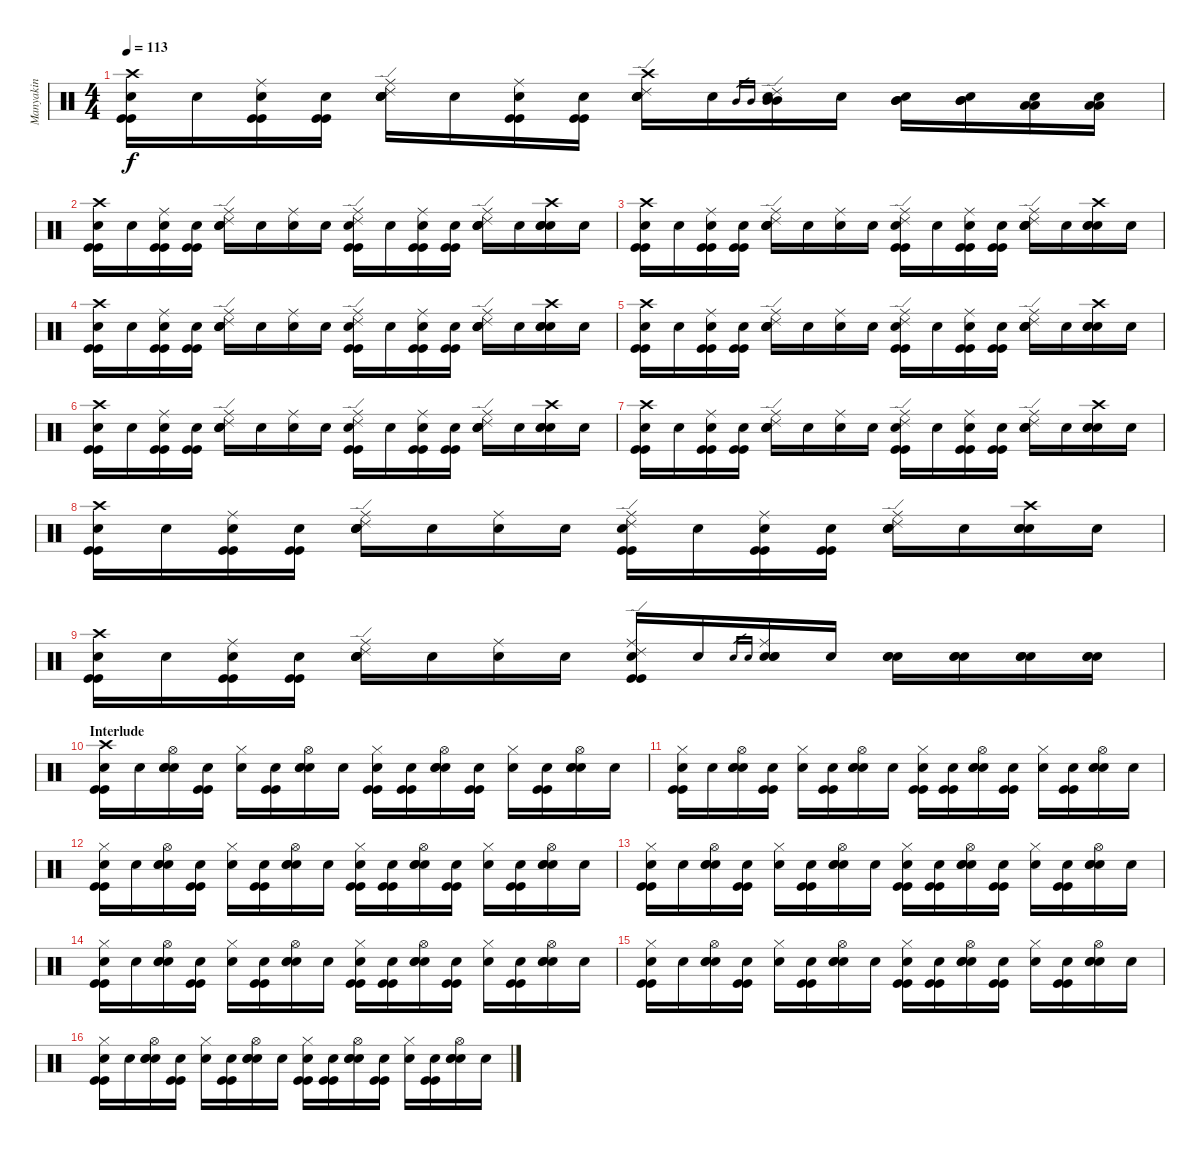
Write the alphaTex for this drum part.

\track ("Manyakin" "Manyakin") {instrument percussion}
\staff {score}
\articulation defaults
\ts (4 4)
\tempo 113
\clef neutral
\ks c
("Crash high (hit)" "Kick (hit)" "Kick (hit)" "Snare (hit)"{x}).16{dy f} "Snare (hit)"{x}.16 ("Ride (middle)" "Kick (hit)" "Kick (hit)" "Snare (hit)"{x}).16 ("Kick (hit)" "Kick (hit)" "Snare (hit)"{x}).16 ("Ride (middle)" "Ride (edge) 2" "Electric Snare (hit)" "Electric Snare (hit)" "Snare (hit)"{x}).16 "Snare (hit)"{x}.16 ("Ride (middle)" "Kick (hit)" "Kick (hit)" "Snare (hit)"{x}).16 ("Kick (hit)" "Kick (hit)" "Snare (hit)"{x}).16 ("Crash high (hit)" "Ride (edge) 2" "Electric Snare (hit)" "Electric Snare (hit)" "Snare (hit)"{x}).16 "Snare (hit)"{x}.16 "Mid Tom (hit)".16{gr} "Mid Tom (hit)".16{gr} ("Ride (edge) 2" "Mid Tom (hit)" "Mid Tom (hit)" "Snare (hit)"{x}).16 "Snare (hit)"{x}.16 ("Mid Tom (hit)" "Mid Tom (hit)" "Snare (hit)"{x}).16 ("Mid Tom (hit)" "Mid Tom (hit)" "Snare (hit)"{x}).16 ("Low Tom (hit)" "Low Tom (hit)" "Snare (hit)"{x}).16 ("Low Tom (hit)" "Low Tom (hit)" "Snare (hit)"{x}).16 |
("Crash high (hit)" "Kick (hit)" "Kick (hit)" "Snare (hit)"{x}).16 "Snare (hit)"{x}.16 ("Ride (middle)" "Kick (hit)" "Kick (hit)" "Snare (hit)"{x}).16 ("Kick (hit)" "Kick (hit)" "Snare (hit)"{x}).16 ("Ride (middle)" "Ride (edge) 2" "Electric Snare (hit)" "Electric Snare (hit)" "Snare (hit)"{x}).16 "Snare (hit)"{x}.16 ("Ride (middle)" "Snare (hit)"{x}).16 "Snare (hit)"{x}.16 ("Ride (middle)" "Ride (edge) 2" "Kick (hit)" "Kick (hit)" "Snare (hit)"{x}).16 "Snare (hit)"{x}.16 ("Ride (middle)" "Kick (hit)" "Kick (hit)" "Snare (hit)"{x}).16 ("Kick (hit)" "Kick (hit)" "Snare (hit)"{x}).16 ("Ride (middle)" "Ride (edge) 2" "Electric Snare (hit)" "Electric Snare (hit)" "Snare (hit)"{x}).16 "Snare (hit)"{x}.16 ("Crash high (hit)" "Electric Snare (hit)" "Electric Snare (hit)" "Snare (hit)"{x}).16 "Snare (hit)"{x}.16 |
("Crash high (hit)" "Kick (hit)" "Kick (hit)" "Snare (hit)"{x}).16 "Snare (hit)"{x}.16 ("Ride (middle)" "Kick (hit)" "Kick (hit)" "Snare (hit)"{x}).16 ("Kick (hit)" "Kick (hit)" "Snare (hit)"{x}).16 ("Ride (middle)" "Ride (edge) 2" "Electric Snare (hit)" "Electric Snare (hit)" "Snare (hit)"{x}).16 "Snare (hit)"{x}.16 ("Ride (middle)" "Snare (hit)"{x}).16 "Snare (hit)"{x}.16 ("Ride (middle)" "Ride (edge) 2" "Kick (hit)" "Kick (hit)" "Snare (hit)"{x}).16 "Snare (hit)"{x}.16 ("Ride (middle)" "Kick (hit)" "Kick (hit)" "Snare (hit)"{x}).16 ("Kick (hit)" "Kick (hit)" "Snare (hit)"{x}).16 ("Ride (middle)" "Ride (edge) 2" "Electric Snare (hit)" "Electric Snare (hit)" "Snare (hit)"{x}).16 "Snare (hit)"{x}.16 ("Crash high (hit)" "Electric Snare (hit)" "Electric Snare (hit)" "Snare (hit)"{x}).16 "Snare (hit)"{x}.16 |
("Crash high (hit)" "Kick (hit)" "Kick (hit)" "Snare (hit)"{x}).16 "Snare (hit)"{x}.16 ("Ride (middle)" "Kick (hit)" "Kick (hit)" "Snare (hit)"{x}).16 ("Kick (hit)" "Kick (hit)" "Snare (hit)"{x}).16 ("Ride (middle)" "Ride (edge) 2" "Electric Snare (hit)" "Electric Snare (hit)" "Snare (hit)"{x}).16 "Snare (hit)"{x}.16 ("Ride (middle)" "Snare (hit)"{x}).16 "Snare (hit)"{x}.16 ("Ride (middle)" "Ride (edge) 2" "Kick (hit)" "Kick (hit)" "Snare (hit)"{x}).16 "Snare (hit)"{x}.16 ("Ride (middle)" "Kick (hit)" "Kick (hit)" "Snare (hit)"{x}).16 ("Kick (hit)" "Kick (hit)" "Snare (hit)"{x}).16 ("Ride (middle)" "Ride (edge) 2" "Electric Snare (hit)" "Electric Snare (hit)" "Snare (hit)"{x}).16 "Snare (hit)"{x}.16 ("Crash high (hit)" "Electric Snare (hit)" "Electric Snare (hit)" "Snare (hit)"{x}).16 "Snare (hit)"{x}.16 |
("Crash high (hit)" "Kick (hit)" "Kick (hit)" "Snare (hit)"{x}).16 "Snare (hit)"{x}.16 ("Ride (middle)" "Kick (hit)" "Kick (hit)" "Snare (hit)"{x}).16 ("Kick (hit)" "Kick (hit)" "Snare (hit)"{x}).16 ("Ride (middle)" "Ride (edge) 2" "Electric Snare (hit)" "Electric Snare (hit)" "Snare (hit)"{x}).16 "Snare (hit)"{x}.16 ("Ride (middle)" "Snare (hit)"{x}).16 "Snare (hit)"{x}.16 ("Ride (middle)" "Ride (edge) 2" "Kick (hit)" "Kick (hit)" "Snare (hit)"{x}).16 "Snare (hit)"{x}.16 ("Ride (middle)" "Kick (hit)" "Kick (hit)" "Snare (hit)"{x}).16 ("Kick (hit)" "Kick (hit)" "Snare (hit)"{x}).16 ("Ride (middle)" "Ride (edge) 2" "Electric Snare (hit)" "Electric Snare (hit)" "Snare (hit)"{x}).16 "Snare (hit)"{x}.16 ("Crash high (hit)" "Electric Snare (hit)" "Electric Snare (hit)" "Snare (hit)"{x}).16 "Snare (hit)"{x}.16 |
("Crash high (hit)" "Kick (hit)" "Kick (hit)" "Snare (hit)"{x}).16 "Snare (hit)"{x}.16 ("Ride (middle)" "Kick (hit)" "Kick (hit)" "Snare (hit)"{x}).16 ("Kick (hit)" "Kick (hit)" "Snare (hit)"{x}).16 ("Ride (middle)" "Ride (edge) 2" "Electric Snare (hit)" "Electric Snare (hit)" "Snare (hit)"{x}).16 "Snare (hit)"{x}.16 ("Ride (middle)" "Snare (hit)"{x}).16 "Snare (hit)"{x}.16 ("Ride (middle)" "Ride (edge) 2" "Kick (hit)" "Kick (hit)" "Snare (hit)"{x}).16 "Snare (hit)"{x}.16 ("Ride (middle)" "Kick (hit)" "Kick (hit)" "Snare (hit)"{x}).16 ("Kick (hit)" "Kick (hit)" "Snare (hit)"{x}).16 ("Ride (middle)" "Ride (edge) 2" "Electric Snare (hit)" "Electric Snare (hit)" "Snare (hit)"{x}).16 "Snare (hit)"{x}.16 ("Crash high (hit)" "Electric Snare (hit)" "Electric Snare (hit)" "Snare (hit)"{x}).16 "Snare (hit)"{x}.16 |
("Crash high (hit)" "Kick (hit)" "Kick (hit)" "Snare (hit)"{x}).16 "Snare (hit)"{x}.16 ("Ride (middle)" "Kick (hit)" "Kick (hit)" "Snare (hit)"{x}).16 ("Kick (hit)" "Kick (hit)" "Snare (hit)"{x}).16 ("Ride (middle)" "Ride (edge) 2" "Electric Snare (hit)" "Electric Snare (hit)" "Snare (hit)"{x}).16 "Snare (hit)"{x}.16 ("Ride (middle)" "Snare (hit)"{x}).16 "Snare (hit)"{x}.16 ("Ride (middle)" "Ride (edge) 2" "Kick (hit)" "Kick (hit)" "Snare (hit)"{x}).16 "Snare (hit)"{x}.16 ("Ride (middle)" "Kick (hit)" "Kick (hit)" "Snare (hit)"{x}).16 ("Kick (hit)" "Kick (hit)" "Snare (hit)"{x}).16 ("Ride (middle)" "Ride (edge) 2" "Electric Snare (hit)" "Electric Snare (hit)" "Snare (hit)"{x}).16 "Snare (hit)"{x}.16 ("Crash high (hit)" "Electric Snare (hit)" "Electric Snare (hit)" "Snare (hit)"{x}).16 "Snare (hit)"{x}.16 |
("Crash high (hit)" "Kick (hit)" "Kick (hit)" "Snare (hit)"{x}).16 "Snare (hit)"{x}.16 ("Ride (middle)" "Kick (hit)" "Kick (hit)" "Snare (hit)"{x}).16 ("Kick (hit)" "Kick (hit)" "Snare (hit)"{x}).16 ("Ride (middle)" "Ride (edge) 2" "Electric Snare (hit)" "Electric Snare (hit)" "Snare (hit)"{x}).16 "Snare (hit)"{x}.16 ("Ride (middle)" "Snare (hit)"{x}).16 "Snare (hit)"{x}.16 ("Ride (middle)" "Ride (edge) 2" "Kick (hit)" "Kick (hit)" "Snare (hit)"{x}).16 "Snare (hit)"{x}.16 ("Ride (middle)" "Kick (hit)" "Kick (hit)" "Snare (hit)"{x}).16 ("Kick (hit)" "Kick (hit)" "Snare (hit)"{x}).16 ("Ride (middle)" "Ride (edge) 2" "Electric Snare (hit)" "Electric Snare (hit)" "Snare (hit)"{x}).16 "Snare (hit)"{x}.16 ("Crash high (hit)" "Electric Snare (hit)" "Electric Snare (hit)" "Snare (hit)"{x}).16 "Snare (hit)"{x}.16 |
("Crash high (hit)" "Kick (hit)" "Kick (hit)" "Snare (hit)"{x}).16 "Snare (hit)"{x}.16 ("Ride (middle)" "Kick (hit)" "Kick (hit)" "Snare (hit)"{x}).16 ("Kick (hit)" "Kick (hit)" "Snare (hit)"{x}).16 ("Ride (middle)" "Ride (edge) 2" "Electric Snare (hit)" "Electric Snare (hit)" "Snare (hit)"{x}).16 "Snare (hit)"{x}.16 ("Ride (middle)" "Snare (hit)"{x}).16 "Snare (hit)"{x}.16 ("Ride (middle)" "Ride (edge) 2" "Kick (hit)" "Kick (hit)" "Snare (hit)"{x}).16 "Snare (hit)"{x}.16 "Electric Snare (hit)".16{gr} "Electric Snare (hit)".16{gr} ("Ride (middle)" "Electric Snare (hit)" "Electric Snare (hit)" "Snare (hit)"{x}).16 "Snare (hit)"{x}.16 ("Electric Snare (hit)" "Electric Snare (hit)" "Snare (hit)"{x}).16 ("Electric Snare (hit)" "Electric Snare (hit)" "Snare (hit)"{x}).16 ("Electric Snare (hit)" "Electric Snare (hit)" "Snare (hit)"{x}).16 ("Electric Snare (hit)" "Electric Snare (hit)" "Snare (hit)"{x}).16 |
\section ("" "Interlude")
("Crash high (hit)" "Kick (hit)" "Kick (hit)" "Snare (hit)"{x}).16 "Snare (hit)"{x}.16 ("Hi-Hat (open)" "Electric Snare (hit)" "Electric Snare (hit)" "Snare (hit)"{x}).16 ("Kick (hit)" "Kick (hit)" "Snare (hit)"{x}).16 ("Hi-Hat (closed)" "Snare (hit)"{x}).16 ("Kick (hit)" "Kick (hit)" "Snare (hit)"{x}).16 ("Hi-Hat (open)" "Electric Snare (hit)" "Electric Snare (hit)" "Snare (hit)"{x}).16 "Snare (hit)"{x}.16 ("Hi-Hat (closed)" "Kick (hit)" "Kick (hit)" "Snare (hit)"{x}).16 ("Kick (hit)" "Kick (hit)" "Snare (hit)"{x}).16 ("Hi-Hat (open)" "Electric Snare (hit)" "Electric Snare (hit)" "Snare (hit)"{x}).16 ("Kick (hit)" "Kick (hit)" "Snare (hit)"{x}).16 ("Hi-Hat (closed)" "Snare (hit)"{x}).16 ("Kick (hit)" "Kick (hit)" "Snare (hit)"{x}).16 ("Hi-Hat (open)" "Electric Snare (hit)" "Electric Snare (hit)" "Snare (hit)"{x}).16 "Snare (hit)"{x}.16 |
("Hi-Hat (closed)" "Kick (hit)" "Kick (hit)" "Snare (hit)"{x}).16 "Snare (hit)"{x}.16 ("Hi-Hat (open)" "Electric Snare (hit)" "Electric Snare (hit)" "Snare (hit)"{x}).16 ("Kick (hit)" "Kick (hit)" "Snare (hit)"{x}).16 ("Hi-Hat (closed)" "Snare (hit)"{x}).16 ("Kick (hit)" "Kick (hit)" "Snare (hit)"{x}).16 ("Hi-Hat (open)" "Electric Snare (hit)" "Electric Snare (hit)" "Snare (hit)"{x}).16 "Snare (hit)"{x}.16 ("Hi-Hat (closed)" "Kick (hit)" "Kick (hit)" "Snare (hit)"{x}).16 ("Kick (hit)" "Kick (hit)" "Snare (hit)"{x}).16 ("Hi-Hat (open)" "Electric Snare (hit)" "Electric Snare (hit)" "Snare (hit)"{x}).16 ("Kick (hit)" "Kick (hit)" "Snare (hit)"{x}).16 ("Hi-Hat (closed)" "Snare (hit)"{x}).16 ("Kick (hit)" "Kick (hit)" "Snare (hit)"{x}).16 ("Hi-Hat (open)" "Electric Snare (hit)" "Electric Snare (hit)" "Snare (hit)"{x}).16 "Snare (hit)"{x}.16 |
("Hi-Hat (closed)" "Kick (hit)" "Kick (hit)" "Snare (hit)"{x}).16 "Snare (hit)"{x}.16 ("Hi-Hat (open)" "Electric Snare (hit)" "Electric Snare (hit)" "Snare (hit)"{x}).16 ("Kick (hit)" "Kick (hit)" "Snare (hit)"{x}).16 ("Hi-Hat (closed)" "Snare (hit)"{x}).16 ("Kick (hit)" "Kick (hit)" "Snare (hit)"{x}).16 ("Hi-Hat (open)" "Electric Snare (hit)" "Electric Snare (hit)" "Snare (hit)"{x}).16 "Snare (hit)"{x}.16 ("Hi-Hat (closed)" "Kick (hit)" "Kick (hit)" "Snare (hit)"{x}).16 ("Kick (hit)" "Kick (hit)" "Snare (hit)"{x}).16 ("Hi-Hat (open)" "Electric Snare (hit)" "Electric Snare (hit)" "Snare (hit)"{x}).16 ("Kick (hit)" "Kick (hit)" "Snare (hit)"{x}).16 ("Hi-Hat (closed)" "Snare (hit)"{x}).16 ("Kick (hit)" "Kick (hit)" "Snare (hit)"{x}).16 ("Hi-Hat (open)" "Electric Snare (hit)" "Electric Snare (hit)" "Snare (hit)"{x}).16 "Snare (hit)"{x}.16 |
("Hi-Hat (closed)" "Kick (hit)" "Kick (hit)" "Snare (hit)"{x}).16 "Snare (hit)"{x}.16 ("Hi-Hat (open)" "Electric Snare (hit)" "Electric Snare (hit)" "Snare (hit)"{x}).16 ("Kick (hit)" "Kick (hit)" "Snare (hit)"{x}).16 ("Hi-Hat (closed)" "Snare (hit)"{x}).16 ("Kick (hit)" "Kick (hit)" "Snare (hit)"{x}).16 ("Hi-Hat (open)" "Electric Snare (hit)" "Electric Snare (hit)" "Snare (hit)"{x}).16 "Snare (hit)"{x}.16 ("Hi-Hat (closed)" "Kick (hit)" "Kick (hit)" "Snare (hit)"{x}).16 ("Kick (hit)" "Kick (hit)" "Snare (hit)"{x}).16 ("Hi-Hat (open)" "Electric Snare (hit)" "Electric Snare (hit)" "Snare (hit)"{x}).16 ("Kick (hit)" "Kick (hit)" "Snare (hit)"{x}).16 ("Hi-Hat (closed)" "Snare (hit)"{x}).16 ("Kick (hit)" "Kick (hit)" "Snare (hit)"{x}).16 ("Hi-Hat (open)" "Electric Snare (hit)" "Electric Snare (hit)" "Snare (hit)"{x}).16 "Snare (hit)"{x}.16 |
("Hi-Hat (closed)" "Kick (hit)" "Kick (hit)" "Snare (hit)"{x}).16 "Snare (hit)"{x}.16 ("Hi-Hat (open)" "Electric Snare (hit)" "Electric Snare (hit)" "Snare (hit)"{x}).16 ("Kick (hit)" "Kick (hit)" "Snare (hit)"{x}).16 ("Hi-Hat (closed)" "Snare (hit)"{x}).16 ("Kick (hit)" "Kick (hit)" "Snare (hit)"{x}).16 ("Hi-Hat (open)" "Electric Snare (hit)" "Electric Snare (hit)" "Snare (hit)"{x}).16 "Snare (hit)"{x}.16 ("Hi-Hat (closed)" "Kick (hit)" "Kick (hit)" "Snare (hit)"{x}).16 ("Kick (hit)" "Kick (hit)" "Snare (hit)"{x}).16 ("Hi-Hat (open)" "Electric Snare (hit)" "Electric Snare (hit)" "Snare (hit)"{x}).16 ("Kick (hit)" "Kick (hit)" "Snare (hit)"{x}).16 ("Hi-Hat (closed)" "Snare (hit)"{x}).16 ("Kick (hit)" "Kick (hit)" "Snare (hit)"{x}).16 ("Hi-Hat (open)" "Electric Snare (hit)" "Electric Snare (hit)" "Snare (hit)"{x}).16 "Snare (hit)"{x}.16 |
("Hi-Hat (closed)" "Kick (hit)" "Kick (hit)" "Snare (hit)"{x}).16 "Snare (hit)"{x}.16 ("Hi-Hat (open)" "Electric Snare (hit)" "Electric Snare (hit)" "Snare (hit)"{x}).16 ("Kick (hit)" "Kick (hit)" "Snare (hit)"{x}).16 ("Hi-Hat (closed)" "Snare (hit)"{x}).16 ("Kick (hit)" "Kick (hit)" "Snare (hit)"{x}).16 ("Hi-Hat (open)" "Electric Snare (hit)" "Electric Snare (hit)" "Snare (hit)"{x}).16 "Snare (hit)"{x}.16 ("Hi-Hat (closed)" "Kick (hit)" "Kick (hit)" "Snare (hit)"{x}).16 ("Kick (hit)" "Kick (hit)" "Snare (hit)"{x}).16 ("Hi-Hat (open)" "Electric Snare (hit)" "Electric Snare (hit)" "Snare (hit)"{x}).16 ("Kick (hit)" "Kick (hit)" "Snare (hit)"{x}).16 ("Hi-Hat (closed)" "Snare (hit)"{x}).16 ("Kick (hit)" "Kick (hit)" "Snare (hit)"{x}).16 ("Hi-Hat (open)" "Electric Snare (hit)" "Electric Snare (hit)" "Snare (hit)"{x}).16 "Snare (hit)"{x}.16 |
("Hi-Hat (closed)" "Kick (hit)" "Kick (hit)" "Snare (hit)"{x}).16 "Snare (hit)"{x}.16 ("Hi-Hat (open)" "Electric Snare (hit)" "Electric Snare (hit)" "Snare (hit)"{x}).16 ("Kick (hit)" "Kick (hit)" "Snare (hit)"{x}).16 ("Hi-Hat (closed)" "Snare (hit)"{x}).16 ("Kick (hit)" "Kick (hit)" "Snare (hit)"{x}).16 ("Hi-Hat (open)" "Electric Snare (hit)" "Electric Snare (hit)" "Snare (hit)"{x}).16 "Snare (hit)"{x}.16 ("Hi-Hat (closed)" "Kick (hit)" "Kick (hit)" "Snare (hit)"{x}).16 ("Kick (hit)" "Kick (hit)" "Snare (hit)"{x}).16 ("Hi-Hat (open)" "Electric Snare (hit)" "Electric Snare (hit)" "Snare (hit)"{x}).16 ("Kick (hit)" "Kick (hit)" "Snare (hit)"{x}).16 ("Hi-Hat (closed)" "Snare (hit)"{x}).16 ("Kick (hit)" "Kick (hit)" "Snare (hit)"{x}).16 ("Hi-Hat (open)" "Electric Snare (hit)" "Electric Snare (hit)" "Snare (hit)"{x}).16 "Snare (hit)"{x}.16
